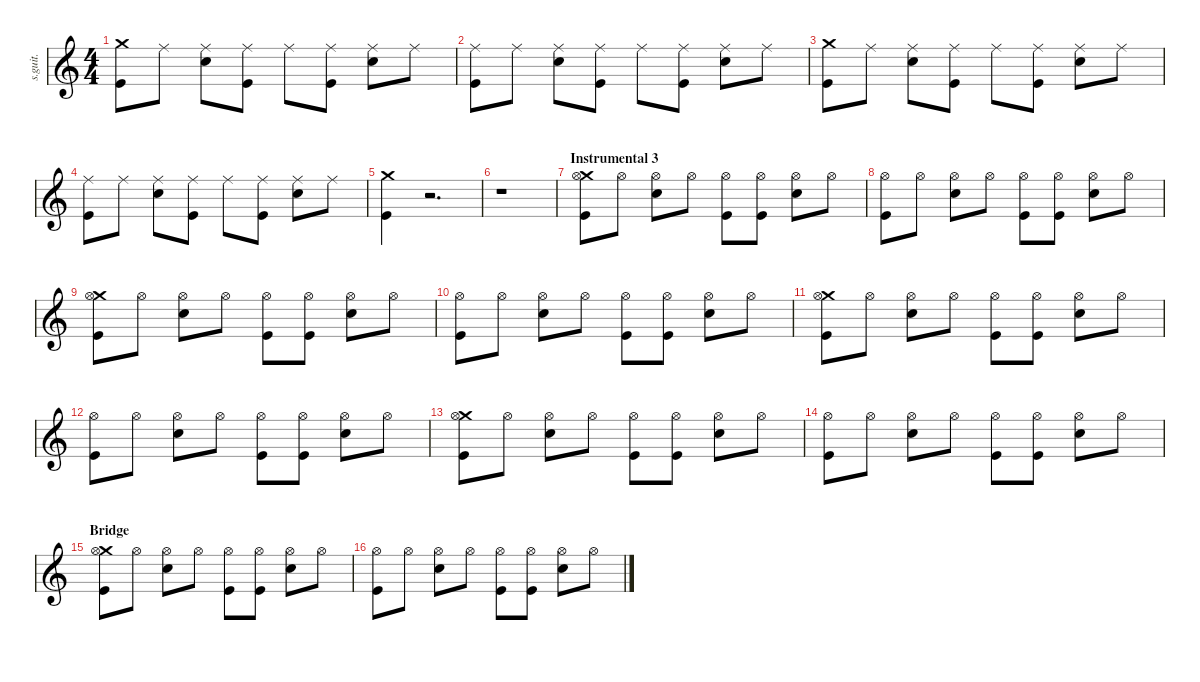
\defaultSystemsLayout 4
\hideDynamics
\bracketExtendMode nobrackets
\track ("Will Champion" "s.guit.") {instrument percussion}
\staff {score}
\articulation defaults
\ts (4 4)
\tempo (87 hide)
\clef g2
\ks c
("Crash medium (hit)" "Kick (hit)").8{lyrics (0 "") lyrics (1 "") lyrics (2 "") lyrics (3 "") lyrics (4 "") dy mf} "Ride (middle)".8{lyrics (0 "") lyrics (1 "") lyrics (2 "") lyrics (3 "") lyrics (4 "") dy f} ("Ride (middle)" "Snare (hit) 2").8{lyrics (0 "") lyrics (1 "") lyrics (2 "") lyrics (3 "") lyrics (4 "")} ("Ride (middle)" "Kick (hit)").8{lyrics (0 "") lyrics (1 "") lyrics (2 "") lyrics (3 "") lyrics (4 "")} "Ride (middle)".8{lyrics (0 "") lyrics (1 "") lyrics (2 "") lyrics (3 "") lyrics (4 "")} ("Ride (middle)" "Kick (hit)").8{lyrics (0 "") lyrics (1 "") lyrics (2 "") lyrics (3 "") lyrics (4 "")} ("Ride (middle)" "Snare (hit) 2").8{lyrics (0 "") lyrics (1 "") lyrics (2 "") lyrics (3 "") lyrics (4 "")} "Ride (middle)".8{lyrics (0 "") lyrics (1 "") lyrics (2 "") lyrics (3 "") lyrics (4 "")} |
("Ride (middle)" "Kick (hit)").8{lyrics (0 "") lyrics (1 "") lyrics (2 "") lyrics (3 "") lyrics (4 "")} "Ride (middle)".8{lyrics (0 "") lyrics (1 "") lyrics (2 "") lyrics (3 "") lyrics (4 "")} ("Ride (middle)" "Snare (hit) 2").8{lyrics (0 "") lyrics (1 "") lyrics (2 "") lyrics (3 "") lyrics (4 "")} ("Ride (middle)" "Kick (hit)").8{lyrics (0 "") lyrics (1 "") lyrics (2 "") lyrics (3 "") lyrics (4 "")} "Ride (middle)".8{lyrics (0 "") lyrics (1 "") lyrics (2 "") lyrics (3 "") lyrics (4 "")} ("Ride (middle)" "Kick (hit)").8{lyrics (0 "") lyrics (1 "") lyrics (2 "") lyrics (3 "") lyrics (4 "")} ("Ride (middle)" "Snare (hit) 2").8{lyrics (0 "") lyrics (1 "") lyrics (2 "") lyrics (3 "") lyrics (4 "")} "Ride (middle)".8{lyrics (0 "") lyrics (1 "") lyrics (2 "") lyrics (3 "") lyrics (4 "")} |
("Crash medium (hit)" "Kick (hit)").8{lyrics (0 "") lyrics (1 "") lyrics (2 "") lyrics (3 "") lyrics (4 "") dy mf} "Ride (middle)".8{lyrics (0 "") lyrics (1 "") lyrics (2 "") lyrics (3 "") lyrics (4 "") dy f} ("Ride (middle)" "Snare (hit) 2").8{lyrics (0 "") lyrics (1 "") lyrics (2 "") lyrics (3 "") lyrics (4 "")} ("Ride (middle)" "Kick (hit)").8{lyrics (0 "") lyrics (1 "") lyrics (2 "") lyrics (3 "") lyrics (4 "")} "Ride (middle)".8{lyrics (0 "") lyrics (1 "") lyrics (2 "") lyrics (3 "") lyrics (4 "")} ("Ride (middle)" "Kick (hit)").8{lyrics (0 "") lyrics (1 "") lyrics (2 "") lyrics (3 "") lyrics (4 "")} ("Ride (middle)" "Snare (hit) 2").8{lyrics (0 "") lyrics (1 "") lyrics (2 "") lyrics (3 "") lyrics (4 "")} "Ride (middle)".8{lyrics (0 "") lyrics (1 "") lyrics (2 "") lyrics (3 "") lyrics (4 "")} |
("Ride (middle)" "Kick (hit)").8{lyrics (0 "") lyrics (1 "") lyrics (2 "") lyrics (3 "") lyrics (4 "")} "Ride (middle)".8{lyrics (0 "") lyrics (1 "") lyrics (2 "") lyrics (3 "") lyrics (4 "")} ("Ride (middle)" "Snare (hit) 2").8{lyrics (0 "") lyrics (1 "") lyrics (2 "") lyrics (3 "") lyrics (4 "")} ("Ride (middle)" "Kick (hit)").8{lyrics (0 "") lyrics (1 "") lyrics (2 "") lyrics (3 "") lyrics (4 "")} "Ride (middle)".8{lyrics (0 "") lyrics (1 "") lyrics (2 "") lyrics (3 "") lyrics (4 "")} ("Ride (middle)" "Kick (hit)").8{lyrics (0 "") lyrics (1 "") lyrics (2 "") lyrics (3 "") lyrics (4 "")} ("Ride (middle)" "Snare (hit) 2").8{lyrics (0 "") lyrics (1 "") lyrics (2 "") lyrics (3 "") lyrics (4 "")} "Ride (middle)".8{lyrics (0 "") lyrics (1 "") lyrics (2 "") lyrics (3 "") lyrics (4 "")} |
("Crash medium (hit)" "Kick (hit)").4{lyrics (0 "") lyrics (1 "") lyrics (2 "") lyrics (3 "") lyrics (4 "") dy mf} r.2{d} |
r.1 |
\section ("" "Instrumental 3")
("Crash medium (hit)" "Kick (hit)" "Hi-Hat (open)").8{lyrics (0 "") lyrics (1 "") lyrics (2 "") lyrics (3 "") lyrics (4 "")} "Hi-Hat (open)".8{lyrics (0 "") lyrics (1 "") lyrics (2 "") lyrics (3 "") lyrics (4 "")} ("Snare (hit) 2" "Hi-Hat (open)").8{lyrics (0 "") lyrics (1 "") lyrics (2 "") lyrics (3 "") lyrics (4 "")} "Hi-Hat (open)".8{lyrics (0 "") lyrics (1 "") lyrics (2 "") lyrics (3 "") lyrics (4 "")} ("Kick (hit)" "Hi-Hat (open)").8{lyrics (0 "") lyrics (1 "") lyrics (2 "") lyrics (3 "") lyrics (4 "")} ("Kick (hit)" "Hi-Hat (open)").8{lyrics (0 "") lyrics (1 "") lyrics (2 "") lyrics (3 "") lyrics (4 "")} ("Snare (hit) 2" "Hi-Hat (open)").8{lyrics (0 "") lyrics (1 "") lyrics (2 "") lyrics (3 "") lyrics (4 "")} "Hi-Hat (open)".8{lyrics (0 "") lyrics (1 "") lyrics (2 "") lyrics (3 "") lyrics (4 "")} |
("Kick (hit)" "Hi-Hat (open)").8{lyrics (0 "") lyrics (1 "") lyrics (2 "") lyrics (3 "") lyrics (4 "")} "Hi-Hat (open)".8{lyrics (0 "") lyrics (1 "") lyrics (2 "") lyrics (3 "") lyrics (4 "")} ("Snare (hit) 2" "Hi-Hat (open)").8{lyrics (0 "") lyrics (1 "") lyrics (2 "") lyrics (3 "") lyrics (4 "")} "Hi-Hat (open)".8{lyrics (0 "") lyrics (1 "") lyrics (2 "") lyrics (3 "") lyrics (4 "")} ("Kick (hit)" "Hi-Hat (open)").8{lyrics (0 "") lyrics (1 "") lyrics (2 "") lyrics (3 "") lyrics (4 "")} ("Kick (hit)" "Hi-Hat (open)").8{lyrics (0 "") lyrics (1 "") lyrics (2 "") lyrics (3 "") lyrics (4 "")} ("Snare (hit) 2" "Hi-Hat (open)").8{lyrics (0 "") lyrics (1 "") lyrics (2 "") lyrics (3 "") lyrics (4 "")} "Hi-Hat (open)".8{lyrics (0 "") lyrics (1 "") lyrics (2 "") lyrics (3 "") lyrics (4 "")} |
("Crash medium (hit)" "Kick (hit)" "Hi-Hat (open)").8{lyrics (0 "") lyrics (1 "") lyrics (2 "") lyrics (3 "") lyrics (4 "")} "Hi-Hat (open)".8{lyrics (0 "") lyrics (1 "") lyrics (2 "") lyrics (3 "") lyrics (4 "")} ("Snare (hit) 2" "Hi-Hat (open)").8{lyrics (0 "") lyrics (1 "") lyrics (2 "") lyrics (3 "") lyrics (4 "")} "Hi-Hat (open)".8{lyrics (0 "") lyrics (1 "") lyrics (2 "") lyrics (3 "") lyrics (4 "")} ("Kick (hit)" "Hi-Hat (open)").8{lyrics (0 "") lyrics (1 "") lyrics (2 "") lyrics (3 "") lyrics (4 "")} ("Kick (hit)" "Hi-Hat (open)").8{lyrics (0 "") lyrics (1 "") lyrics (2 "") lyrics (3 "") lyrics (4 "")} ("Snare (hit) 2" "Hi-Hat (open)").8{lyrics (0 "") lyrics (1 "") lyrics (2 "") lyrics (3 "") lyrics (4 "")} "Hi-Hat (open)".8{lyrics (0 "") lyrics (1 "") lyrics (2 "") lyrics (3 "") lyrics (4 "")} |
("Kick (hit)" "Hi-Hat (open)").8{lyrics (0 "") lyrics (1 "") lyrics (2 "") lyrics (3 "") lyrics (4 "")} "Hi-Hat (open)".8{lyrics (0 "") lyrics (1 "") lyrics (2 "") lyrics (3 "") lyrics (4 "")} ("Snare (hit) 2" "Hi-Hat (open)").8{lyrics (0 "") lyrics (1 "") lyrics (2 "") lyrics (3 "") lyrics (4 "")} "Hi-Hat (open)".8{lyrics (0 "") lyrics (1 "") lyrics (2 "") lyrics (3 "") lyrics (4 "")} ("Kick (hit)" "Hi-Hat (open)").8{lyrics (0 "") lyrics (1 "") lyrics (2 "") lyrics (3 "") lyrics (4 "")} ("Kick (hit)" "Hi-Hat (open)").8{lyrics (0 "") lyrics (1 "") lyrics (2 "") lyrics (3 "") lyrics (4 "")} ("Snare (hit) 2" "Hi-Hat (open)").8{lyrics (0 "") lyrics (1 "") lyrics (2 "") lyrics (3 "") lyrics (4 "")} "Hi-Hat (open)".8{lyrics (0 "") lyrics (1 "") lyrics (2 "") lyrics (3 "") lyrics (4 "")} |
("Crash medium (hit)" "Kick (hit)" "Hi-Hat (open)").8{lyrics (0 "") lyrics (1 "") lyrics (2 "") lyrics (3 "") lyrics (4 "")} "Hi-Hat (open)".8{lyrics (0 "") lyrics (1 "") lyrics (2 "") lyrics (3 "") lyrics (4 "")} ("Snare (hit) 2" "Hi-Hat (open)").8{lyrics (0 "") lyrics (1 "") lyrics (2 "") lyrics (3 "") lyrics (4 "")} "Hi-Hat (open)".8{lyrics (0 "") lyrics (1 "") lyrics (2 "") lyrics (3 "") lyrics (4 "")} ("Kick (hit)" "Hi-Hat (open)").8{lyrics (0 "") lyrics (1 "") lyrics (2 "") lyrics (3 "") lyrics (4 "")} ("Kick (hit)" "Hi-Hat (open)").8{lyrics (0 "") lyrics (1 "") lyrics (2 "") lyrics (3 "") lyrics (4 "")} ("Snare (hit) 2" "Hi-Hat (open)").8{lyrics (0 "") lyrics (1 "") lyrics (2 "") lyrics (3 "") lyrics (4 "")} "Hi-Hat (open)".8{lyrics (0 "") lyrics (1 "") lyrics (2 "") lyrics (3 "") lyrics (4 "")} |
("Kick (hit)" "Hi-Hat (open)").8{lyrics (0 "") lyrics (1 "") lyrics (2 "") lyrics (3 "") lyrics (4 "")} "Hi-Hat (open)".8{lyrics (0 "") lyrics (1 "") lyrics (2 "") lyrics (3 "") lyrics (4 "")} ("Snare (hit) 2" "Hi-Hat (open)").8{lyrics (0 "") lyrics (1 "") lyrics (2 "") lyrics (3 "") lyrics (4 "")} "Hi-Hat (open)".8{lyrics (0 "") lyrics (1 "") lyrics (2 "") lyrics (3 "") lyrics (4 "")} ("Kick (hit)" "Hi-Hat (open)").8{lyrics (0 "") lyrics (1 "") lyrics (2 "") lyrics (3 "") lyrics (4 "")} ("Kick (hit)" "Hi-Hat (open)").8{lyrics (0 "") lyrics (1 "") lyrics (2 "") lyrics (3 "") lyrics (4 "")} ("Snare (hit) 2" "Hi-Hat (open)").8{lyrics (0 "") lyrics (1 "") lyrics (2 "") lyrics (3 "") lyrics (4 "")} "Hi-Hat (open)".8{lyrics (0 "") lyrics (1 "") lyrics (2 "") lyrics (3 "") lyrics (4 "")} |
("Crash medium (hit)" "Kick (hit)" "Hi-Hat (open)").8{lyrics (0 "") lyrics (1 "") lyrics (2 "") lyrics (3 "") lyrics (4 "")} "Hi-Hat (open)".8{lyrics (0 "") lyrics (1 "") lyrics (2 "") lyrics (3 "") lyrics (4 "")} ("Snare (hit) 2" "Hi-Hat (open)").8{lyrics (0 "") lyrics (1 "") lyrics (2 "") lyrics (3 "") lyrics (4 "")} "Hi-Hat (open)".8{lyrics (0 "") lyrics (1 "") lyrics (2 "") lyrics (3 "") lyrics (4 "")} ("Kick (hit)" "Hi-Hat (open)").8{lyrics (0 "") lyrics (1 "") lyrics (2 "") lyrics (3 "") lyrics (4 "")} ("Kick (hit)" "Hi-Hat (open)").8{lyrics (0 "") lyrics (1 "") lyrics (2 "") lyrics (3 "") lyrics (4 "")} ("Snare (hit) 2" "Hi-Hat (open)").8{lyrics (0 "") lyrics (1 "") lyrics (2 "") lyrics (3 "") lyrics (4 "")} "Hi-Hat (open)".8{lyrics (0 "") lyrics (1 "") lyrics (2 "") lyrics (3 "") lyrics (4 "")} |
("Kick (hit)" "Hi-Hat (open)").8{lyrics (0 "") lyrics (1 "") lyrics (2 "") lyrics (3 "") lyrics (4 "")} "Hi-Hat (open)".8{lyrics (0 "") lyrics (1 "") lyrics (2 "") lyrics (3 "") lyrics (4 "")} ("Snare (hit) 2" "Hi-Hat (open)").8{lyrics (0 "") lyrics (1 "") lyrics (2 "") lyrics (3 "") lyrics (4 "")} "Hi-Hat (open)".8{lyrics (0 "") lyrics (1 "") lyrics (2 "") lyrics (3 "") lyrics (4 "")} ("Kick (hit)" "Hi-Hat (open)").8{lyrics (0 "") lyrics (1 "") lyrics (2 "") lyrics (3 "") lyrics (4 "")} ("Kick (hit)" "Hi-Hat (open)").8{lyrics (0 "") lyrics (1 "") lyrics (2 "") lyrics (3 "") lyrics (4 "")} ("Snare (hit) 2" "Hi-Hat (open)").8{lyrics (0 "") lyrics (1 "") lyrics (2 "") lyrics (3 "") lyrics (4 "")} "Hi-Hat (open)".8{lyrics (0 "") lyrics (1 "") lyrics (2 "") lyrics (3 "") lyrics (4 "")} |
\section ("" "Bridge")
("Crash medium (hit)" "Kick (hit)" "Hi-Hat (open)").8{lyrics (0 "") lyrics (1 "") lyrics (2 "") lyrics (3 "") lyrics (4 "")} "Hi-Hat (open)".8{lyrics (0 "") lyrics (1 "") lyrics (2 "") lyrics (3 "") lyrics (4 "")} ("Snare (hit) 2" "Hi-Hat (open)").8{lyrics (0 "") lyrics (1 "") lyrics (2 "") lyrics (3 "") lyrics (4 "")} "Hi-Hat (open)".8{lyrics (0 "") lyrics (1 "") lyrics (2 "") lyrics (3 "") lyrics (4 "")} ("Kick (hit)" "Hi-Hat (open)").8{lyrics (0 "") lyrics (1 "") lyrics (2 "") lyrics (3 "") lyrics (4 "")} ("Kick (hit)" "Hi-Hat (open)").8{lyrics (0 "") lyrics (1 "") lyrics (2 "") lyrics (3 "") lyrics (4 "")} ("Snare (hit) 2" "Hi-Hat (open)").8{lyrics (0 "") lyrics (1 "") lyrics (2 "") lyrics (3 "") lyrics (4 "")} "Hi-Hat (open)".8{lyrics (0 "") lyrics (1 "") lyrics (2 "") lyrics (3 "") lyrics (4 "")} |
("Kick (hit)" "Hi-Hat (open)").8{lyrics (0 "") lyrics (1 "") lyrics (2 "") lyrics (3 "") lyrics (4 "")} "Hi-Hat (open)".8{lyrics (0 "") lyrics (1 "") lyrics (2 "") lyrics (3 "") lyrics (4 "")} ("Snare (hit) 2" "Hi-Hat (open)").8{lyrics (0 "") lyrics (1 "") lyrics (2 "") lyrics (3 "") lyrics (4 "")} "Hi-Hat (open)".8{lyrics (0 "") lyrics (1 "") lyrics (2 "") lyrics (3 "") lyrics (4 "")} ("Kick (hit)" "Hi-Hat (open)").8{lyrics (0 "") lyrics (1 "") lyrics (2 "") lyrics (3 "") lyrics (4 "")} ("Kick (hit)" "Hi-Hat (open)").8{lyrics (0 "") lyrics (1 "") lyrics (2 "") lyrics (3 "") lyrics (4 "")} ("Snare (hit) 2" "Hi-Hat (open)").8{lyrics (0 "") lyrics (1 "") lyrics (2 "") lyrics (3 "") lyrics (4 "")} "Hi-Hat (open)".8{lyrics (0 "") lyrics (1 "") lyrics (2 "") lyrics (3 "") lyrics (4 "")}
